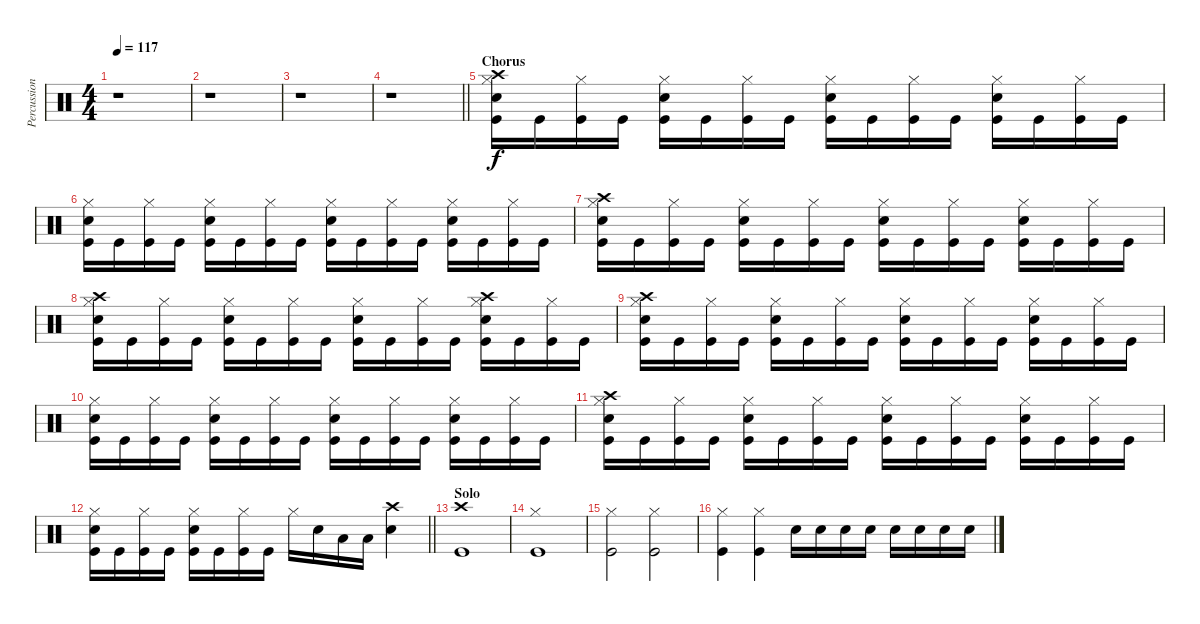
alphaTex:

\track ("Percussion" "Percussion") {instrument percussion}
\staff {score}
\articulation defaults
\ts (4 4)
\tempo 117
\clef neutral
\ks c
r.1{dy f} |
r.1 |
r.1 |
\barLineRight lightlight
r.1 |
\section ("" "Chorus")
("Crash high (hit)" "Hi-Hat (closed)" "Snare (hit) 2" "Kick (hit)").16 "Kick (hit)".16 ("Hi-Hat (closed)" "Kick (hit)").16 "Kick (hit)".16 ("Hi-Hat (closed)" "Snare (hit) 2" "Kick (hit)").16 "Kick (hit)".16 ("Hi-Hat (closed)" "Kick (hit)").16 "Kick (hit)".16 ("Hi-Hat (closed)" "Snare (hit) 2" "Kick (hit)").16 "Kick (hit)".16 ("Hi-Hat (closed)" "Kick (hit)").16 "Kick (hit)".16 ("Hi-Hat (closed)" "Snare (hit) 2" "Kick (hit)").16 "Kick (hit)".16 ("Hi-Hat (closed)" "Kick (hit)").16 "Kick (hit)".16 |
("Hi-Hat (closed)" "Snare (hit) 2" "Kick (hit)").16 "Kick (hit)".16 ("Hi-Hat (closed)" "Kick (hit)").16 "Kick (hit)".16 ("Hi-Hat (closed)" "Snare (hit) 2" "Kick (hit)").16 "Kick (hit)".16 ("Hi-Hat (closed)" "Kick (hit)").16 "Kick (hit)".16 ("Hi-Hat (closed)" "Snare (hit) 2" "Kick (hit)").16 "Kick (hit)".16 ("Hi-Hat (closed)" "Kick (hit)").16 "Kick (hit)".16 ("Hi-Hat (closed)" "Snare (hit) 2" "Kick (hit)").16 "Kick (hit)".16 ("Hi-Hat (closed)" "Kick (hit)").16 "Kick (hit)".16 |
("Crash high (hit)" "Hi-Hat (closed)" "Snare (hit) 2" "Kick (hit)").16 "Kick (hit)".16 ("Hi-Hat (closed)" "Kick (hit)").16 "Kick (hit)".16 ("Hi-Hat (closed)" "Snare (hit) 2" "Kick (hit)").16 "Kick (hit)".16 ("Hi-Hat (closed)" "Kick (hit)").16 "Kick (hit)".16 ("Hi-Hat (closed)" "Snare (hit) 2" "Kick (hit)").16 "Kick (hit)".16 ("Hi-Hat (closed)" "Kick (hit)").16 "Kick (hit)".16 ("Hi-Hat (closed)" "Snare (hit) 2" "Kick (hit)").16 "Kick (hit)".16 ("Hi-Hat (closed)" "Kick (hit)").16 "Kick (hit)".16 |
("Crash high (hit)" "Hi-Hat (closed)" "Snare (hit) 2" "Kick (hit)").16 "Kick (hit)".16 ("Hi-Hat (closed)" "Kick (hit)").16 "Kick (hit)".16 ("Hi-Hat (closed)" "Snare (hit) 2" "Kick (hit)").16 "Kick (hit)".16 ("Hi-Hat (closed)" "Kick (hit)").16 "Kick (hit)".16 ("Hi-Hat (closed)" "Snare (hit) 2" "Kick (hit)").16 "Kick (hit)".16 ("Hi-Hat (closed)" "Kick (hit)").16 "Kick (hit)".16 ("Crash high (hit)" "Hi-Hat (closed)" "Snare (hit) 2" "Kick (hit)").16 "Kick (hit)".16 ("Hi-Hat (closed)" "Kick (hit)").16 "Kick (hit)".16 |
("Crash high (hit)" "Hi-Hat (closed)" "Snare (hit) 2" "Kick (hit)").16 "Kick (hit)".16 ("Hi-Hat (closed)" "Kick (hit)").16 "Kick (hit)".16 ("Hi-Hat (closed)" "Snare (hit) 2" "Kick (hit)").16 "Kick (hit)".16 ("Hi-Hat (closed)" "Kick (hit)").16 "Kick (hit)".16 ("Hi-Hat (closed)" "Snare (hit) 2" "Kick (hit)").16 "Kick (hit)".16 ("Hi-Hat (closed)" "Kick (hit)").16 "Kick (hit)".16 ("Hi-Hat (closed)" "Snare (hit) 2" "Kick (hit)").16 "Kick (hit)".16 ("Hi-Hat (closed)" "Kick (hit)").16 "Kick (hit)".16 |
("Hi-Hat (closed)" "Snare (hit) 2" "Kick (hit)").16 "Kick (hit)".16 ("Hi-Hat (closed)" "Kick (hit)").16 "Kick (hit)".16 ("Hi-Hat (closed)" "Snare (hit) 2" "Kick (hit)").16 "Kick (hit)".16 ("Hi-Hat (closed)" "Kick (hit)").16 "Kick (hit)".16 ("Hi-Hat (closed)" "Snare (hit) 2" "Kick (hit)").16 "Kick (hit)".16 ("Hi-Hat (closed)" "Kick (hit)").16 "Kick (hit)".16 ("Hi-Hat (closed)" "Snare (hit) 2" "Kick (hit)").16 "Kick (hit)".16 ("Hi-Hat (closed)" "Kick (hit)").16 "Kick (hit)".16 |
("Crash high (hit)" "Hi-Hat (closed)" "Snare (hit) 2" "Kick (hit)").16 "Kick (hit)".16 ("Hi-Hat (closed)" "Kick (hit)").16 "Kick (hit)".16 ("Hi-Hat (closed)" "Snare (hit) 2" "Kick (hit)").16 "Kick (hit)".16 ("Hi-Hat (closed)" "Kick (hit)").16 "Kick (hit)".16 ("Hi-Hat (closed)" "Snare (hit) 2" "Kick (hit)").16 "Kick (hit)".16 ("Hi-Hat (closed)" "Kick (hit)").16 "Kick (hit)".16 ("Hi-Hat (closed)" "Snare (hit) 2" "Kick (hit)").16 "Kick (hit)".16 ("Hi-Hat (closed)" "Kick (hit)").16 "Kick (hit)".16 |
\barLineRight lightlight
("Hi-Hat (closed)" "Snare (hit) 2" "Kick (hit)").16 "Kick (hit)".16 ("Hi-Hat (closed)" "Kick (hit)").16 "Kick (hit)".16 ("Hi-Hat (closed)" "Snare (hit) 2" "Kick (hit)").16 "Kick (hit)".16 ("Hi-Hat (closed)" "Kick (hit)").16 "Kick (hit)".16 "Hi-Hat (closed)".16 "Snare (hit) 2".16 "Low Tom (hit)".16 "Low Tom (hit)".16 ("Crash high (hit)" "Snare (hit) 2").4 |
\section ("" "Solo")
("Crash high (hit)" "Kick (hit)").1 |
("Hi-Hat (closed)" "Kick (hit)").1 |
("Hi-Hat (closed)" "Kick (hit)").2 ("Hi-Hat (closed)" "Kick (hit)").2 |
("Hi-Hat (closed)" "Kick (hit)").4 ("Hi-Hat (closed)" "Kick (hit)").4 "Snare (hit) 2".16 "Snare (hit) 2".16 "Snare (hit) 2".16 "Snare (hit) 2".16 "Snare (hit) 2".16 "Snare (hit) 2".16 "Snare (hit) 2".16 "Snare (hit) 2".16
